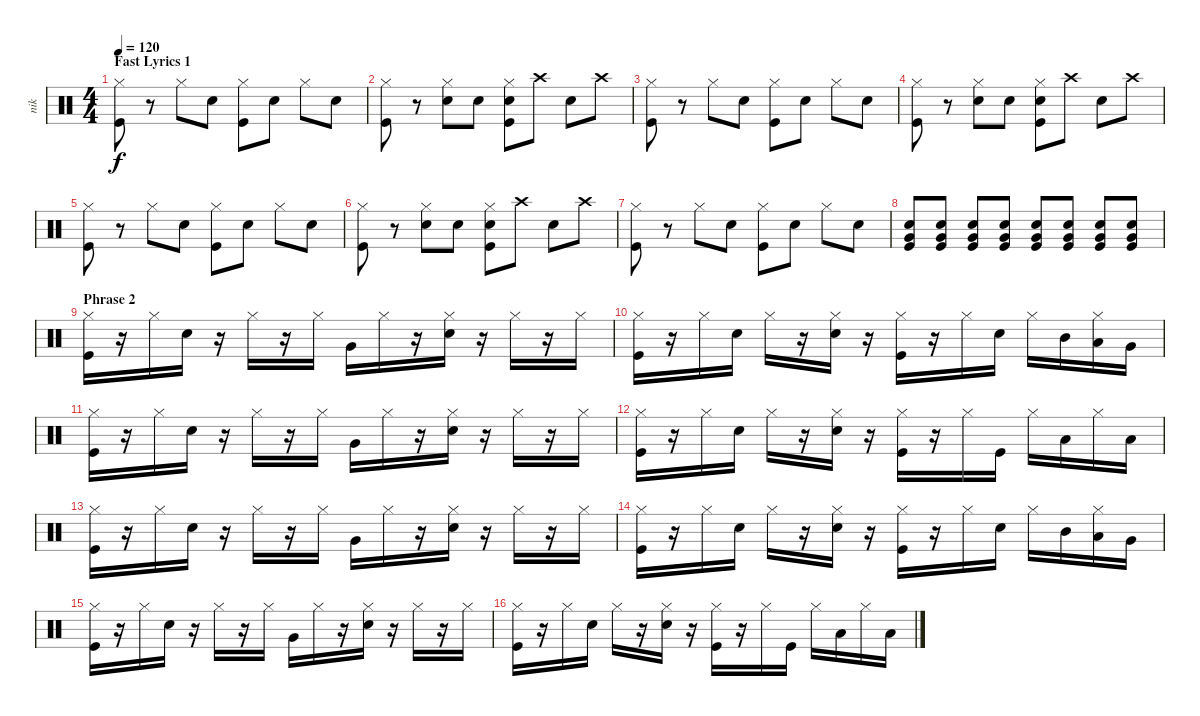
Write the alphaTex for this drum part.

\track ("nik" "nik") {instrument percussion}
\staff {score}
\articulation defaults
\ts (4 4)
\section ("" "Fast Lyrics 1")
\tempo 120
\clef neutral
\ks c
("Hi-Hat (closed)" "Kick (hit)").8{dy f} r.8 "Hi-Hat (closed)".8 "Electric Snare (hit)".8 ("Hi-Hat (closed)" "Kick (hit)").8 "Electric Snare (hit)".8 "Hi-Hat (closed)".8 "Electric Snare (hit)".8 |
("Hi-Hat (closed)" "Kick (hit)").8 r.8 ("Hi-Hat (closed)" "Electric Snare (hit)").8 "Electric Snare (hit)".8 ("Hi-Hat (closed)" "Electric Snare (hit)" "Kick (hit)").8 "Crash high (hit)".8 "Electric Snare (hit)".8 "Crash high (hit)".8 |
("Hi-Hat (closed)" "Kick (hit)").8 r.8 "Hi-Hat (closed)".8 "Electric Snare (hit)".8 ("Hi-Hat (closed)" "Kick (hit)").8 "Electric Snare (hit)".8 "Hi-Hat (closed)".8 "Electric Snare (hit)".8 |
("Hi-Hat (closed)" "Kick (hit)").8 r.8 ("Hi-Hat (closed)" "Electric Snare (hit)").8 "Electric Snare (hit)".8 ("Hi-Hat (closed)" "Electric Snare (hit)" "Kick (hit)").8 "Crash high (hit)".8 "Electric Snare (hit)".8 "Crash high (hit)".8 |
("Hi-Hat (closed)" "Kick (hit)").8 r.8 "Hi-Hat (closed)".8 "Electric Snare (hit)".8 ("Hi-Hat (closed)" "Kick (hit)").8 "Electric Snare (hit)".8 "Hi-Hat (closed)".8 "Electric Snare (hit)".8 |
("Hi-Hat (closed)" "Kick (hit)").8 r.8 ("Hi-Hat (closed)" "Electric Snare (hit)").8 "Electric Snare (hit)".8 ("Hi-Hat (closed)" "Electric Snare (hit)" "Kick (hit)").8 "Crash high (hit)".8 "Electric Snare (hit)".8 "Crash high (hit)".8 |
("Hi-Hat (closed)" "Kick (hit)").8 r.8 "Hi-Hat (closed)".8 "Electric Snare (hit)".8 ("Hi-Hat (closed)" "Kick (hit)").8 "Electric Snare (hit)".8 "Hi-Hat (closed)".8 "Electric Snare (hit)".8 |
("Very Low Tom (hit)" "Electric Snare (hit)" "Kick (hit)").8 ("Very Low Tom (hit)" "Electric Snare (hit)" "Kick (hit)").8 ("Very Low Tom (hit)" "Electric Snare (hit)" "Kick (hit)").8 ("Very Low Tom (hit)" "Electric Snare (hit)" "Kick (hit)").8 ("Very Low Tom (hit)" "Electric Snare (hit)" "Kick (hit)").8 ("Very Low Tom (hit)" "Electric Snare (hit)" "Kick (hit)").8 ("Very Low Tom (hit)" "Electric Snare (hit)" "Kick (hit)").8 ("Very Low Tom (hit)" "Electric Snare (hit)" "Kick (hit)").8 |
\section ("" "Phrase 2")
("Hi-Hat (closed)" "Kick (hit)").16 r.16 "Hi-Hat (closed)".16 "Electric Snare (hit)".16 r.16 "Hi-Hat (closed)".16 r.16 "Hi-Hat (closed)".16 "Very Low Tom (hit)".16 "Hi-Hat (closed)".16 r.16 ("Hi-Hat (closed)" "Electric Snare (hit)").16 r.16 "Hi-Hat (closed)".16 r.16 "Hi-Hat (closed)".16 |
("Hi-Hat (closed)" "Kick (hit)").16 r.16 "Hi-Hat (closed)".16 "Electric Snare (hit)".16 "Hi-Hat (closed)".16 r.16 ("Hi-Hat (closed)" "Electric Snare (hit)").16 r.16 ("Hi-Hat (closed)" "Kick (hit)").16 r.16 "Hi-Hat (closed)".16 "Electric Snare (hit)".16 "Hi-Hat (closed)".16 "Mid Tom (hit)".16 ("Hi-Hat (closed)" "Low Tom (hit)").16 "Very Low Tom (hit)".16 |
("Hi-Hat (closed)" "Kick (hit)").16 r.16 "Hi-Hat (closed)".16 "Electric Snare (hit)".16 r.16 "Hi-Hat (closed)".16 r.16 "Hi-Hat (closed)".16 "Very Low Tom (hit)".16 "Hi-Hat (closed)".16 r.16 ("Hi-Hat (closed)" "Electric Snare (hit)").16 r.16 "Hi-Hat (closed)".16 r.16 "Hi-Hat (closed)".16 |
("Hi-Hat (closed)" "Kick (hit)").16 r.16 "Hi-Hat (closed)".16 "Electric Snare (hit)".16 "Hi-Hat (closed)".16 r.16 ("Hi-Hat (closed)" "Electric Snare (hit)").16 r.16 ("Hi-Hat (closed)" "Kick (hit)").16 r.16 "Hi-Hat (closed)".16 "Kick (hit)".16 "Hi-Hat (closed)".16 "Low Tom (hit)".16 "Hi-Hat (closed)".16 "Low Tom (hit)".16 |
("Hi-Hat (closed)" "Kick (hit)").16 r.16 "Hi-Hat (closed)".16 "Electric Snare (hit)".16 r.16 "Hi-Hat (closed)".16 r.16 "Hi-Hat (closed)".16 "Very Low Tom (hit)".16 "Hi-Hat (closed)".16 r.16 ("Hi-Hat (closed)" "Electric Snare (hit)").16 r.16 "Hi-Hat (closed)".16 r.16 "Hi-Hat (closed)".16 |
("Hi-Hat (closed)" "Kick (hit)").16 r.16 "Hi-Hat (closed)".16 "Electric Snare (hit)".16 "Hi-Hat (closed)".16 r.16 ("Hi-Hat (closed)" "Electric Snare (hit)").16 r.16 ("Hi-Hat (closed)" "Kick (hit)").16 r.16 "Hi-Hat (closed)".16 "Electric Snare (hit)".16 "Hi-Hat (closed)".16 "Mid Tom (hit)".16 ("Hi-Hat (closed)" "Low Tom (hit)").16 "Very Low Tom (hit)".16 |
("Hi-Hat (closed)" "Kick (hit)").16 r.16 "Hi-Hat (closed)".16 "Electric Snare (hit)".16 r.16 "Hi-Hat (closed)".16 r.16 "Hi-Hat (closed)".16 "Very Low Tom (hit)".16 "Hi-Hat (closed)".16 r.16 ("Hi-Hat (closed)" "Electric Snare (hit)").16 r.16 "Hi-Hat (closed)".16 r.16 "Hi-Hat (closed)".16 |
("Hi-Hat (closed)" "Kick (hit)").16 r.16 "Hi-Hat (closed)".16 "Electric Snare (hit)".16 "Hi-Hat (closed)".16 r.16 ("Hi-Hat (closed)" "Electric Snare (hit)").16 r.16 ("Hi-Hat (closed)" "Kick (hit)").16 r.16 "Hi-Hat (closed)".16 "Kick (hit)".16 "Hi-Hat (closed)".16 "Low Tom (hit)".16 "Hi-Hat (closed)".16 "Low Tom (hit)".16
